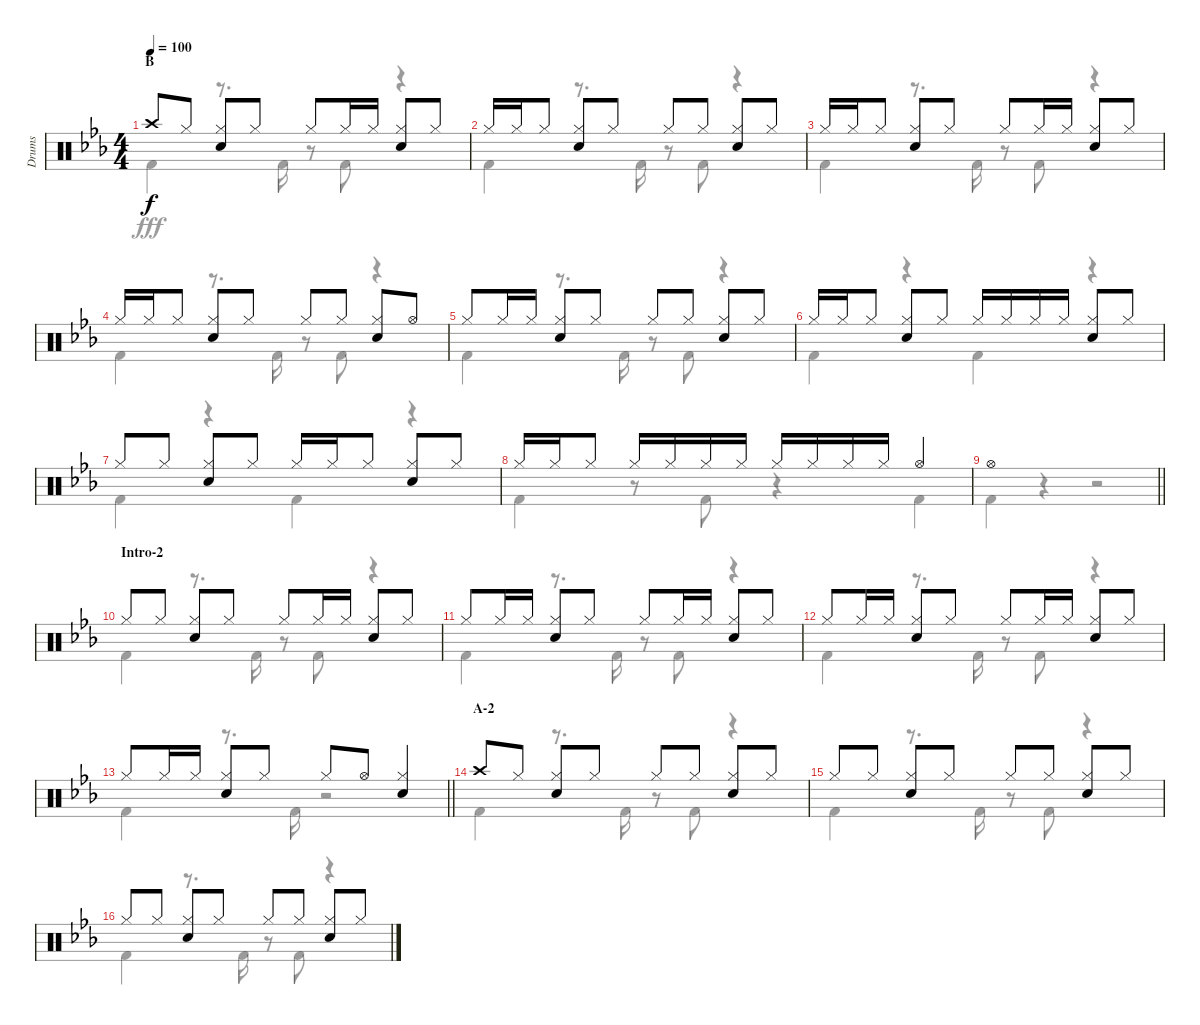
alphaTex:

\track ("Drums" "Drums") {instrument percussion}
\staff {score}
\articulation defaults
\voice
\ts (4 4)
\section ("" "B")
\tempo 100
\clef neutral
\ks eb "Crash high (hit)".8{dy f} "Hi-Hat (closed)".8
("Hi-Hat (closed)" "Snare (hit) 2").8 "Hi-Hat (closed)".8 "Hi-Hat (closed)".8 "Hi-Hat (closed)".16 "Hi-Hat (closed)".16 ("Hi-Hat (closed)" "Snare (hit) 2").8 "Hi-Hat (closed)".8 |
"Hi-Hat (closed)".16 "Hi-Hat (closed)".16 "Hi-Hat (closed)".8 ("Hi-Hat (closed)" "Snare (hit) 2").8 "Hi-Hat (closed)".8 "Hi-Hat (closed)".8 "Hi-Hat (closed)".8 ("Hi-Hat (closed)" "Snare (hit) 2").8 "Hi-Hat (closed)".8 |
"Hi-Hat (closed)".16 "Hi-Hat (closed)".16 "Hi-Hat (closed)".8 ("Hi-Hat (closed)" "Snare (hit) 2").8 "Hi-Hat (closed)".8 "Hi-Hat (closed)".8 "Hi-Hat (closed)".16 "Hi-Hat (closed)".16 ("Hi-Hat (closed)" "Snare (hit) 2").8 "Hi-Hat (closed)".8 |
"Hi-Hat (closed)".16 "Hi-Hat (closed)".16 "Hi-Hat (closed)".8 ("Hi-Hat (closed)" "Snare (hit) 2").8 "Hi-Hat (closed)".8 "Hi-Hat (closed)".8 "Hi-Hat (closed)".8 ("Hi-Hat (closed)" "Snare (hit) 2").8 "Hi-Hat (open)".8 |
"Hi-Hat (closed)".8 "Hi-Hat (closed)".16 "Hi-Hat (closed)".16 ("Hi-Hat (closed)" "Snare (hit) 2").8 "Hi-Hat (closed)".8 "Hi-Hat (closed)".8 "Hi-Hat (closed)".8 ("Hi-Hat (closed)" "Snare (hit) 2").8 "Hi-Hat (closed)".8 |
"Hi-Hat (closed)".16 "Hi-Hat (closed)".16 "Hi-Hat (closed)".8 ("Hi-Hat (closed)" "Snare (hit) 2").8 "Hi-Hat (closed)".8 "Hi-Hat (closed)".16 "Hi-Hat (closed)".16 "Hi-Hat (closed)".16 "Hi-Hat (closed)".16 ("Hi-Hat (closed)" "Snare (hit) 2").8 "Hi-Hat (closed)".8 |
"Hi-Hat (closed)".8 "Hi-Hat (closed)".8 ("Hi-Hat (closed)" "Snare (hit) 2").8 "Hi-Hat (closed)".8 "Hi-Hat (closed)".16 "Hi-Hat (closed)".16 "Hi-Hat (closed)".8 ("Hi-Hat (closed)" "Snare (hit) 2").8 "Hi-Hat (closed)".8 |
"Hi-Hat (closed)".16 "Hi-Hat (closed)".16 "Hi-Hat (closed)".8 "Hi-Hat (closed)".16 "Hi-Hat (closed)".16 "Hi-Hat (closed)".16 "Hi-Hat (closed)".16 "Hi-Hat (closed)".16 "Hi-Hat (closed)".16 "Hi-Hat (closed)".16 "Hi-Hat (closed)".16 "Hi-Hat (open)".4 |
\barLineRight lightlight "Hi-Hat (open)".1
|
\section ("" "Intro-2")
"Hi-Hat (closed)".8 "Hi-Hat (closed)".8 ("Hi-Hat (closed)" "Snare (hit) 2").8 "Hi-Hat (closed)".8 "Hi-Hat (closed)".8 "Hi-Hat (closed)".16 "Hi-Hat (closed)".16 ("Hi-Hat (closed)" "Snare (hit) 2").8 "Hi-Hat (closed)".8 |
"Hi-Hat (closed)".8 "Hi-Hat (closed)".16 "Hi-Hat (closed)".16 ("Hi-Hat (closed)" "Snare (hit) 2").8 "Hi-Hat (closed)".8 "Hi-Hat (closed)".8 "Hi-Hat (closed)".16 "Hi-Hat (closed)".16 ("Hi-Hat (closed)" "Snare (hit) 2").8 "Hi-Hat (closed)".8 |
"Hi-Hat (closed)".8 "Hi-Hat (closed)".16 "Hi-Hat (closed)".16 ("Hi-Hat (closed)" "Snare (hit) 2").8 "Hi-Hat (closed)".8 "Hi-Hat (closed)".8 "Hi-Hat (closed)".16 "Hi-Hat (closed)".16 ("Hi-Hat (closed)" "Snare (hit) 2").8 "Hi-Hat (closed)".8 |
\barLineRight lightlight "Hi-Hat (closed)".8 "Hi-Hat (closed)".16 "Hi-Hat (closed)".16
("Hi-Hat (closed)" "Snare (hit) 2").8 "Hi-Hat (closed)".8 "Hi-Hat (closed)".8 "Hi-Hat (open)".8 ("Hi-Hat (closed)" "Snare (hit) 2").4 |
\section ("" "A-2")
"Crash high (hit)".8 "Hi-Hat (closed)".8 ("Hi-Hat (closed)" "Snare (hit) 2").8 "Hi-Hat (closed)".8 "Hi-Hat (closed)".8 "Hi-Hat (closed)".8 ("Hi-Hat (closed)" "Snare (hit) 2").8 "Hi-Hat (closed)".8 |
"Hi-Hat (closed)".8 "Hi-Hat (closed)".8 ("Hi-Hat (closed)" "Snare (hit) 2").8 "Hi-Hat (closed)".8 "Hi-Hat (closed)".8 "Hi-Hat (closed)".8 ("Hi-Hat (closed)" "Snare (hit) 2").8 "Hi-Hat (closed)".8 |
"Hi-Hat (closed)".8 "Hi-Hat (closed)".8 ("Hi-Hat (closed)" "Snare (hit) 2").8 "Hi-Hat (closed)".8 "Hi-Hat (closed)".8 "Hi-Hat (closed)".8 ("Hi-Hat (closed)" "Snare (hit) 2").8 "Hi-Hat (closed)".8
\voice
\clef neutral
\ottava regular
\simile none
\ks eb "Kick (hit) 2".4{dy fff}
r.8{d} "Kick (hit) 2".16 r.8 "Kick (hit) 2".8 r.4 |
"Kick (hit) 2".4 r.8{d} "Kick (hit) 2".16 r.8 "Kick (hit) 2".8 r.4 |
"Kick (hit) 2".4 r.8{d} "Kick (hit) 2".16 r.8 "Kick (hit) 2".8 r.4 |
"Kick (hit) 2".4 r.8{d} "Kick (hit) 2".16 r.8 "Kick (hit) 2".8 r.4 |
"Kick (hit) 2".4 r.8{d} "Kick (hit) 2".16 r.8 "Kick (hit) 2".8 r.4 |
"Kick (hit) 2".4 r.4 "Kick (hit) 2".4 r.4 |
"Kick (hit) 2".4 r.4 "Kick (hit) 2".4 r.4 |
"Kick (hit) 2".4 r.8 "Kick (hit) 2".8 r.4 "Kick (hit) 2".4 |
\barLineRight lightlight "Kick (hit) 2".4
r.4 r.2 |
"Kick (hit) 2".4 r.8{d} "Kick (hit) 2".16 r.8 "Kick (hit) 2".8 r.4 |
"Kick (hit) 2".4 r.8{d} "Kick (hit) 2".16 r.8 "Kick (hit) 2".8 r.4 |
"Kick (hit) 2".4 r.8{d} "Kick (hit) 2".16 r.8 "Kick (hit) 2".8 r.4 |
\barLineRight lightlight "Kick (hit) 2".4
r.8{d} "Kick (hit) 2".16 r.2 |
"Kick (hit) 2".4 r.8{d} "Kick (hit) 2".16 r.8 "Kick (hit) 2".8 r.4 |
"Kick (hit) 2".4 r.8{d} "Kick (hit) 2".16 r.8 "Kick (hit) 2".8 r.4 |
"Kick (hit) 2".4 r.8{d} "Kick (hit) 2".16 r.8 "Kick (hit) 2".8 r.4
